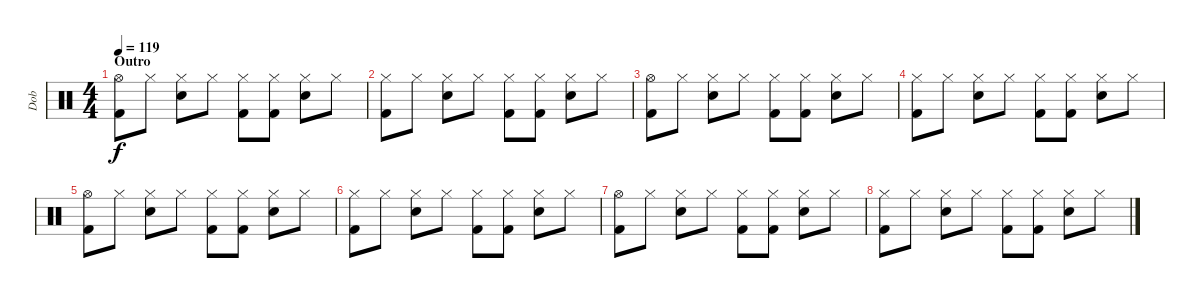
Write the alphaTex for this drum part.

\track ("Dob" "Dob") {instrument percussion}
\staff {score}
\articulation defaults
\ts (4 4)
\section ("" "Outro")
\tempo 119
\clef neutral
\ks c
("Hi-Hat (open)" "Kick (hit) 2").8{dy f} "Hi-Hat (closed)".8 ("Hi-Hat (closed)" "Snare (hit) 2").8 "Hi-Hat (closed)".8 ("Hi-Hat (closed)" "Kick (hit) 2").8 ("Hi-Hat (closed)" "Kick (hit) 2").8 ("Hi-Hat (closed)" "Snare (hit) 2").8 "Hi-Hat (closed)".8 |
("Hi-Hat (closed)" "Kick (hit) 2").8 "Hi-Hat (closed)".8 ("Hi-Hat (closed)" "Snare (hit) 2").8 "Hi-Hat (closed)".8 ("Hi-Hat (closed)" "Kick (hit) 2").8 ("Hi-Hat (closed)" "Kick (hit) 2").8 ("Hi-Hat (closed)" "Snare (hit) 2").8 "Hi-Hat (closed)".8 |
("Hi-Hat (open)" "Kick (hit) 2").8 "Hi-Hat (closed)".8 ("Hi-Hat (closed)" "Snare (hit) 2").8 "Hi-Hat (closed)".8 ("Hi-Hat (closed)" "Kick (hit) 2").8 ("Hi-Hat (closed)" "Kick (hit) 2").8 ("Hi-Hat (closed)" "Snare (hit) 2").8 "Hi-Hat (closed)".8 |
("Hi-Hat (closed)" "Kick (hit) 2").8 "Hi-Hat (closed)".8 ("Hi-Hat (closed)" "Snare (hit) 2").8 "Hi-Hat (closed)".8 ("Hi-Hat (closed)" "Kick (hit) 2").8 ("Hi-Hat (closed)" "Kick (hit) 2").8 ("Hi-Hat (closed)" "Snare (hit) 2").8 "Hi-Hat (closed)".8 |
("Hi-Hat (open)" "Kick (hit) 2").8 "Hi-Hat (closed)".8 ("Hi-Hat (closed)" "Snare (hit) 2").8 "Hi-Hat (closed)".8 ("Hi-Hat (closed)" "Kick (hit) 2").8 ("Hi-Hat (closed)" "Kick (hit) 2").8 ("Hi-Hat (closed)" "Snare (hit) 2").8 "Hi-Hat (closed)".8 |
("Hi-Hat (closed)" "Kick (hit) 2").8 "Hi-Hat (closed)".8 ("Hi-Hat (closed)" "Snare (hit) 2").8 "Hi-Hat (closed)".8 ("Hi-Hat (closed)" "Kick (hit) 2").8 ("Hi-Hat (closed)" "Kick (hit) 2").8 ("Hi-Hat (closed)" "Snare (hit) 2").8 "Hi-Hat (closed)".8 |
("Hi-Hat (open)" "Kick (hit) 2").8 "Hi-Hat (closed)".8 ("Hi-Hat (closed)" "Snare (hit) 2").8 "Hi-Hat (closed)".8 ("Hi-Hat (closed)" "Kick (hit) 2").8 ("Hi-Hat (closed)" "Kick (hit) 2").8 ("Hi-Hat (closed)" "Snare (hit) 2").8 "Hi-Hat (closed)".8 |
("Hi-Hat (closed)" "Kick (hit) 2").8 "Hi-Hat (closed)".8 ("Hi-Hat (closed)" "Snare (hit) 2").8 "Hi-Hat (closed)".8 ("Hi-Hat (closed)" "Kick (hit) 2").8 ("Hi-Hat (closed)" "Kick (hit) 2").8 ("Hi-Hat (closed)" "Snare (hit) 2").8 "Hi-Hat (closed)".8
